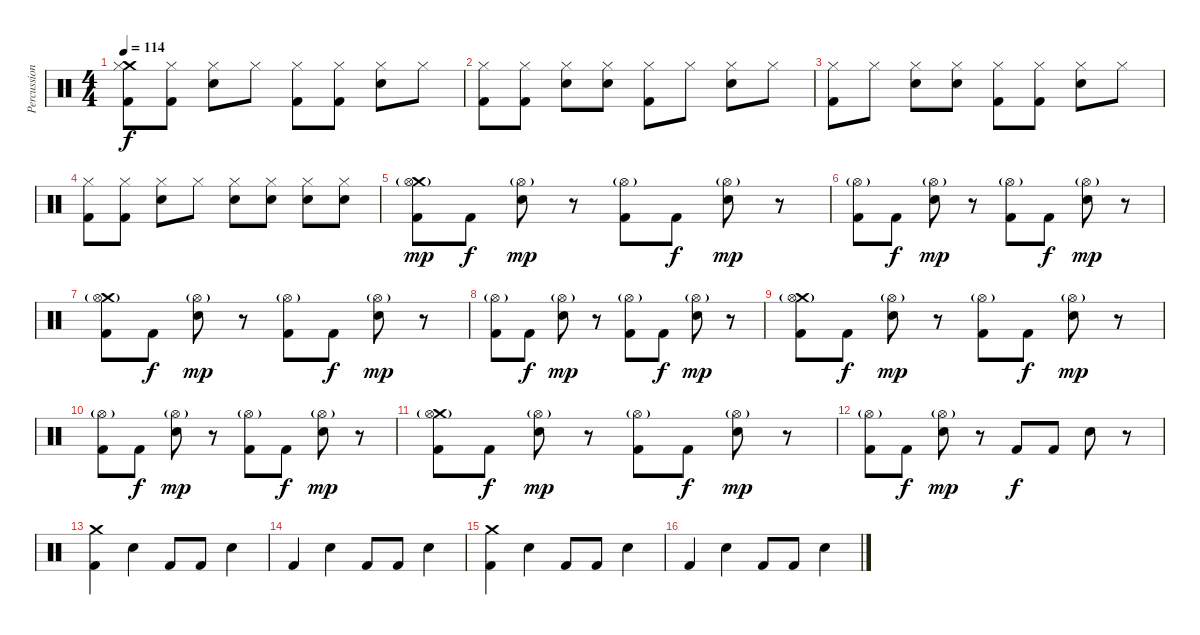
\track ("Percussion" "Percussion") {instrument percussion}
\staff {score}
\articulation defaults
\ts (4 4)
\tempo 114
\clef neutral
\ks c
("Crash medium (hit)" "Kick (hit) 2" "Hi-Hat (closed)").8{dy f} ("Kick (hit) 2" "Hi-Hat (closed)").8 ("Snare (hit) 2" "Hi-Hat (closed)").8 "Hi-Hat (closed)".8 ("Kick (hit) 2" "Hi-Hat (closed)").8 ("Kick (hit) 2" "Hi-Hat (closed)").8 ("Snare (hit) 2" "Hi-Hat (closed)").8 "Hi-Hat (closed)".8 |
("Kick (hit) 2" "Hi-Hat (closed)").8 ("Kick (hit) 2" "Hi-Hat (closed)").8 ("Snare (hit) 2" "Hi-Hat (closed)").8 ("Snare (hit) 2" "Hi-Hat (closed)").8 ("Kick (hit) 2" "Hi-Hat (closed)").8 "Hi-Hat (closed)".8 ("Snare (hit) 2" "Hi-Hat (closed)").8 "Hi-Hat (closed)".8 |
("Kick (hit) 2" "Hi-Hat (closed)").8 "Hi-Hat (closed)".8 ("Snare (hit) 2" "Hi-Hat (closed)").8 ("Snare (hit) 2" "Hi-Hat (closed)").8 ("Kick (hit) 2" "Hi-Hat (closed)").8 ("Kick (hit) 2" "Hi-Hat (closed)").8 ("Snare (hit) 2" "Hi-Hat (closed)").8 "Hi-Hat (closed)".8 |
("Kick (hit) 2" "Hi-Hat (closed)").8 ("Kick (hit) 2" "Hi-Hat (closed)").8 ("Snare (hit) 2" "Hi-Hat (closed)").8 "Hi-Hat (closed)".8 ("Snare (hit) 2" "Hi-Hat (closed)").8 ("Snare (hit) 2" "Hi-Hat (closed)").8 ("Snare (hit) 2" "Hi-Hat (closed)").8 ("Snare (hit) 2" "Hi-Hat (closed)").8 |
("Crash medium (hit)" "Kick (hit) 2" "Hi-Hat (open)"{g}).8{dy mp} "Kick (hit) 2".8{dy f} ("Snare (hit) 2" "Hi-Hat (open)"{g}).8{dy mp} r.8 ("Kick (hit) 2" "Hi-Hat (open)"{g}).8 "Kick (hit) 2".8{dy f} ("Snare (hit) 2" "Hi-Hat (open)"{g}).8{dy mp} r.8 |
("Kick (hit) 2" "Hi-Hat (open)"{g}).8 "Kick (hit) 2".8{dy f} ("Snare (hit) 2" "Hi-Hat (open)"{g}).8{dy mp} r.8 ("Kick (hit) 2" "Hi-Hat (open)"{g}).8 "Kick (hit) 2".8{dy f} ("Snare (hit) 2" "Hi-Hat (open)"{g}).8{dy mp} r.8 |
("Crash medium (hit)" "Kick (hit) 2" "Hi-Hat (open)"{g}).8 "Kick (hit) 2".8{dy f} ("Snare (hit) 2" "Hi-Hat (open)"{g}).8{dy mp} r.8 ("Kick (hit) 2" "Hi-Hat (open)"{g}).8 "Kick (hit) 2".8{dy f} ("Snare (hit) 2" "Hi-Hat (open)"{g}).8{dy mp} r.8 |
("Kick (hit) 2" "Hi-Hat (open)"{g}).8 "Kick (hit) 2".8{dy f} ("Snare (hit) 2" "Hi-Hat (open)"{g}).8{dy mp} r.8 ("Kick (hit) 2" "Hi-Hat (open)"{g}).8 "Kick (hit) 2".8{dy f} ("Snare (hit) 2" "Hi-Hat (open)"{g}).8{dy mp} r.8 |
("Crash medium (hit)" "Kick (hit) 2" "Hi-Hat (open)"{g}).8 "Kick (hit) 2".8{dy f} ("Snare (hit) 2" "Hi-Hat (open)"{g}).8{dy mp} r.8 ("Kick (hit) 2" "Hi-Hat (open)"{g}).8 "Kick (hit) 2".8{dy f} ("Snare (hit) 2" "Hi-Hat (open)"{g}).8{dy mp} r.8 |
("Kick (hit) 2" "Hi-Hat (open)"{g}).8 "Kick (hit) 2".8{dy f} ("Snare (hit) 2" "Hi-Hat (open)"{g}).8{dy mp} r.8 ("Kick (hit) 2" "Hi-Hat (open)"{g}).8 "Kick (hit) 2".8{dy f} ("Snare (hit) 2" "Hi-Hat (open)"{g}).8{dy mp} r.8 |
("Crash medium (hit)" "Kick (hit) 2" "Hi-Hat (open)"{g}).8 "Kick (hit) 2".8{dy f} ("Snare (hit) 2" "Hi-Hat (open)"{g}).8{dy mp} r.8 ("Kick (hit) 2" "Hi-Hat (open)"{g}).8 "Kick (hit) 2".8{dy f} ("Snare (hit) 2" "Hi-Hat (open)"{g}).8{dy mp} r.8 |
("Kick (hit) 2" "Hi-Hat (open)"{g}).8 "Kick (hit) 2".8{dy f} ("Snare (hit) 2" "Hi-Hat (open)"{g}).8{dy mp} r.8 "Kick (hit) 2".8{dy f} "Kick (hit) 2".8 "Snare (hit) 2".8 r.8 |
("Crash medium (hit)" "Kick (hit) 2").4 "Snare (hit) 2".4 "Kick (hit) 2".8 "Kick (hit) 2".8 "Snare (hit) 2".4 |
"Kick (hit) 2".4 "Snare (hit) 2".4 "Kick (hit) 2".8 "Kick (hit) 2".8 "Snare (hit) 2".4 |
("Crash medium (hit)" "Kick (hit) 2").4 "Snare (hit) 2".4 "Kick (hit) 2".8 "Kick (hit) 2".8 "Snare (hit) 2".4 |
"Kick (hit) 2".4 "Snare (hit) 2".4 "Kick (hit) 2".8 "Kick (hit) 2".8 "Snare (hit) 2".4
